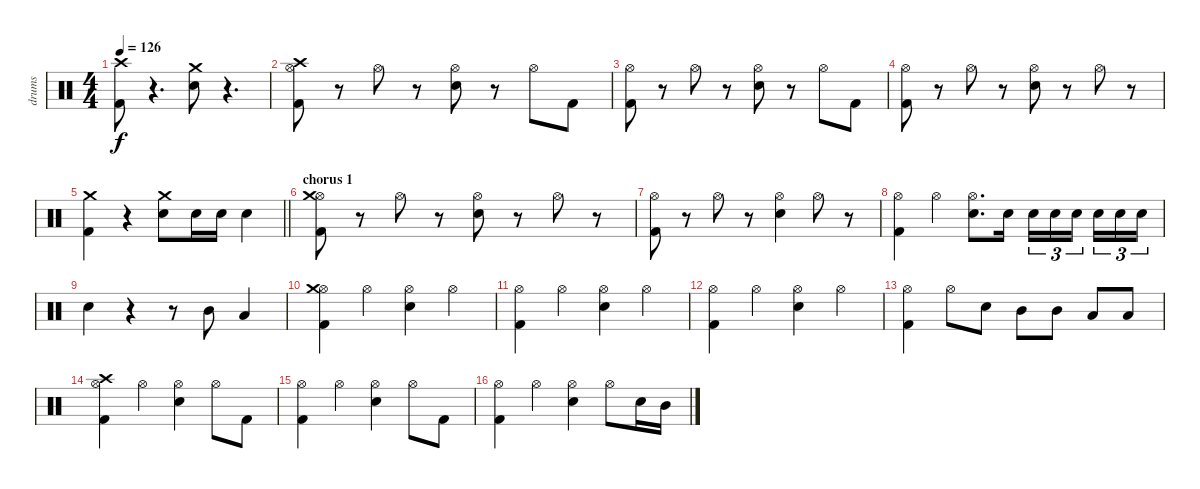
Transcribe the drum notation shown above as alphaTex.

\track ("drums" "drums") {instrument percussion}
\staff {score}
\articulation defaults
\ts (4 4)
\tempo 126
\clef neutral
\ks c
("Kick (hit) 2" "Crash high (hit)").8{dy f} r.4{d} ("Electric Snare (hit)" "Crash medium (hit)").8 r.4{d} |
("Kick (hit) 2" "Hi-Hat (open)" "Crash high (hit)").8 r.8 "Hi-Hat (open)".8 r.8 ("Electric Snare (hit)" "Hi-Hat (open)").8 r.8 "Hi-Hat (open)".8 "Kick (hit) 2".8 |
("Kick (hit) 2" "Hi-Hat (open)").8 r.8 "Hi-Hat (open)".8 r.8 ("Electric Snare (hit)" "Hi-Hat (open)").8 r.8 "Hi-Hat (open)".8 "Kick (hit) 2".8 |
("Kick (hit) 2" "Hi-Hat (open)").8 r.8 "Hi-Hat (open)".8 r.8 ("Electric Snare (hit)" "Hi-Hat (open)").8 r.8 "Hi-Hat (open)".8 r.8 |
\barLineRight lightlight
("Kick (hit) 2" "Crash medium (hit)").4 r.4 ("Crash medium (hit)" "Electric Snare (hit)").8 "Electric Snare (hit)".16 "Electric Snare (hit)".16 "Electric Snare (hit)".4 |
\section ("" "chorus 1")
("Kick (hit) 2" "Hi-Hat (open)" "Crash medium (hit)").8 r.8 "Hi-Hat (open)".8 r.8 ("Electric Snare (hit)" "Hi-Hat (open)").8 r.8 "Hi-Hat (open)".8 r.8 |
("Kick (hit) 2" "Hi-Hat (open)").8 r.8 "Hi-Hat (open)".8 r.8 ("Electric Snare (hit)" "Hi-Hat (open)").4 "Hi-Hat (open)".8 r.8 |
("Kick (hit) 2" "Hi-Hat (open)").4 "Hi-Hat (open)".4 ("Electric Snare (hit)" "Hi-Hat (open)").8{d} "Electric Snare (hit)".16 "Electric Snare (hit)".16{tu (3 2)} "Electric Snare (hit)".16{tu (3 2)} "Electric Snare (hit)".16{tu (3 2)} "Electric Snare (hit)".16{tu (3 2)} "Electric Snare (hit)".16{tu (3 2)} "Electric Snare (hit)".16{tu (3 2)} |
"Electric Snare (hit)".4 r.4 r.8 "Mid Tom (hit)".8 "Low Tom (hit)".4 |
("Hi-Hat (open)" "Crash medium (hit)" "Kick (hit) 2").4 "Hi-Hat (open)".4 ("Electric Snare (hit)" "Hi-Hat (open)").4 "Hi-Hat (open)".4 |
("Kick (hit) 2" "Hi-Hat (open)").4 "Hi-Hat (open)".4 ("Electric Snare (hit)" "Hi-Hat (open)").4 "Hi-Hat (open)".4 |
("Kick (hit) 2" "Hi-Hat (open)").4 "Hi-Hat (open)".4 ("Electric Snare (hit)" "Hi-Hat (open)").4 "Hi-Hat (open)".4 |
("Kick (hit) 2" "Hi-Hat (open)").4 "Hi-Hat (open)".8 "Electric Snare (hit)".8 "Mid Tom (hit)".8 "Mid Tom (hit)".8 "Low Tom (hit)".8 "Low Tom (hit)".8 |
("Kick (hit) 2" "Hi-Hat (open)" "Crash high (hit)").4 "Hi-Hat (open)".4 ("Electric Snare (hit)" "Hi-Hat (open)").4 "Hi-Hat (open)".8 "Kick (hit) 2".8 |
("Kick (hit) 2" "Hi-Hat (open)").4 "Hi-Hat (open)".4 ("Electric Snare (hit)" "Hi-Hat (open)").4 "Hi-Hat (open)".8 "Kick (hit) 2".8 |
("Kick (hit) 2" "Hi-Hat (open)").4 "Hi-Hat (open)".4 ("Electric Snare (hit)" "Hi-Hat (open)").4 "Hi-Hat (open)".8 "Electric Snare (hit)".16 "Mid Tom (hit)".16
